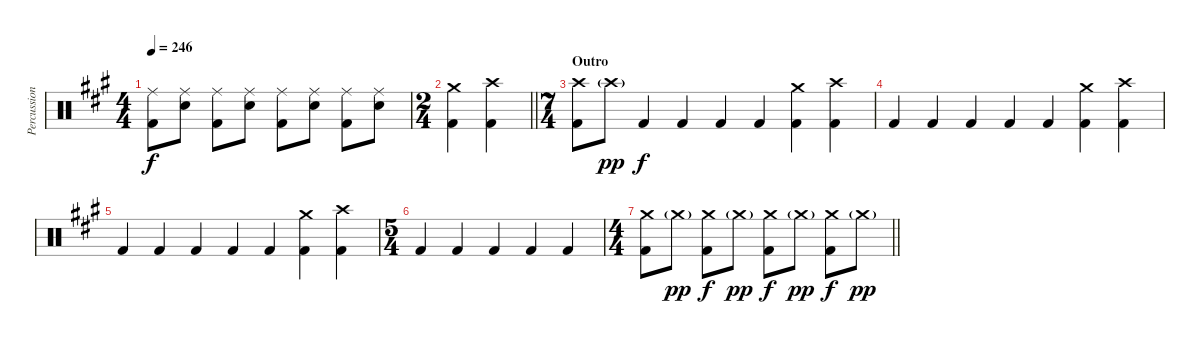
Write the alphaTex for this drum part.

\track ("Percussion" "Percussion") {instrument percussion}
\staff {score}
\articulation defaults
\ts (4 4)
\tempo 246
\clef neutral
\ks f#minor
("Ride (middle)" "Kick (hit) 2").8{dy f} ("Ride (middle)" "Electric Snare (hit)").8 ("Ride (middle)" "Kick (hit) 2").8 ("Ride (middle)" "Electric Snare (hit)").8 ("Ride (middle)" "Kick (hit) 2").8 ("Ride (middle)" "Electric Snare (hit)").8 ("Ride (middle)" "Kick (hit) 2").8 ("Ride (middle)" "Electric Snare (hit)").8 |
\ts (2 4)
\barLineRight lightlight
("Crash medium (hit)" "Kick (hit) 2").4 ("Crash high (hit)" "Kick (hit) 2").4 |
\ts (7 4)
\section ("" "Outro")
("Crash high (hit)" "Kick (hit) 2").8 "Crash high (hit)"{g}.8{dy pp} "Kick (hit) 2".4{dy f} "Kick (hit) 2".4 "Kick (hit) 2".4 "Kick (hit) 2".4 ("Crash medium (hit)" "Kick (hit) 2").4 ("Crash high (hit)" "Kick (hit) 2").4 |
"Kick (hit) 2".4 "Kick (hit) 2".4 "Kick (hit) 2".4 "Kick (hit) 2".4 "Kick (hit) 2".4 ("Crash medium (hit)" "Kick (hit) 2").4 ("Crash high (hit)" "Kick (hit) 2").4 |
"Kick (hit) 2".4 "Kick (hit) 2".4 "Kick (hit) 2".4 "Kick (hit) 2".4 "Kick (hit) 2".4 ("Crash medium (hit)" "Kick (hit) 2").4 ("Crash high (hit)" "Kick (hit) 2").4 |
\ts (5 4)
"Kick (hit) 2".4 "Kick (hit) 2".4 "Kick (hit) 2".4 "Kick (hit) 2".4 "Kick (hit) 2".4 |
\ts (4 4)
\barLineRight lightlight
("Crash medium (hit)" "Kick (hit) 2").8 "Crash medium (hit)"{g}.8{dy pp} ("Crash medium (hit)" "Kick (hit) 2").8{dy f} "Crash medium (hit)"{g}.8{dy pp} ("Crash medium (hit)" "Kick (hit) 2").8{dy f} "Crash medium (hit)"{g}.8{dy pp} ("Crash medium (hit)" "Kick (hit) 2").8{dy f} "Crash medium (hit)"{g}.8{dy pp}
